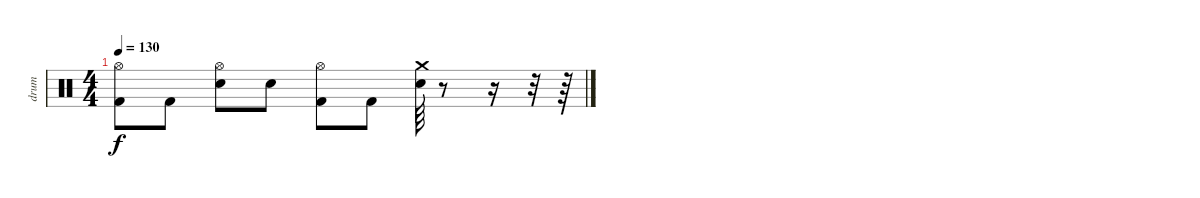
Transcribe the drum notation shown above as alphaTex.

\track ("drum" "drum") {instrument percussion}
\staff {score}
\articulation defaults
\ts (4 4)
\tempo 130
\clef neutral
\ks c
("Hi-Hat (open)" "Kick (hit) 2").8{dy f} "Kick (hit) 2".8 ("Hi-Hat (open)" "Electric Snare (hit)").8 "Electric Snare (hit)".8 ("Kick (hit) 2" "Hi-Hat (open)").8 "Kick (hit) 2".8 ("Crash medium (hit)" "Electric Snare (hit)").64 r.8 r.16 r.32 r.64
